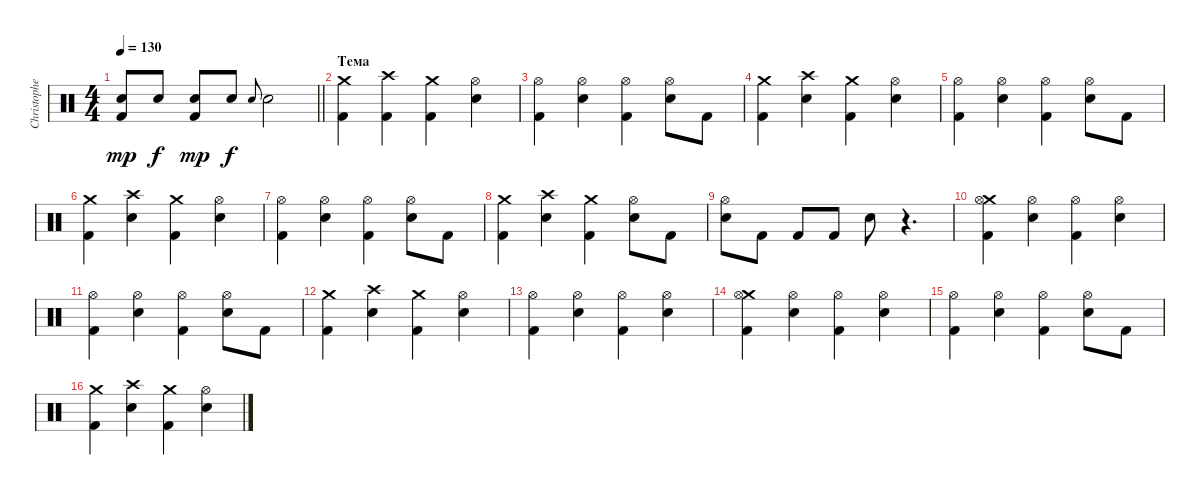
\track ("Christopher Schneider" "Christophe") {instrument percussion}
\staff {score}
\articulation defaults
\ts (4 4)
\tempo 130
\clef neutral
\barLineRight lightlight
\ks c
("Kick (hit) 2" "Electric Snare (hit)").8{dy mp} "Electric Snare (hit)".8{dy f} ("Kick (hit) 2" "Electric Snare (hit)").8{dy mp} "Electric Snare (hit)".8{dy f} "Electric Snare (hit)".8{gr onbeat} "Electric Snare (hit)".2 |
\section ("" "Тема")
("Crash medium (hit)" "Kick (hit) 2").4 ("Crash high (hit)" "Kick (hit) 2").4 ("Crash medium (hit)" "Kick (hit) 2").4 ("Hi-Hat (open)" "Electric Snare (hit)").4 |
("Hi-Hat (open)" "Kick (hit) 2").4 ("Hi-Hat (open)" "Electric Snare (hit)").4 ("Hi-Hat (open)" "Kick (hit) 2").4 ("Hi-Hat (open)" "Electric Snare (hit)").8 "Kick (hit) 2".8 |
("Crash medium (hit)" "Kick (hit) 2").4 ("Crash high (hit)" "Electric Snare (hit)").4 ("Crash medium (hit)" "Kick (hit) 2").4 ("Hi-Hat (open)" "Electric Snare (hit)").4 |
("Hi-Hat (open)" "Kick (hit) 2").4 ("Hi-Hat (open)" "Electric Snare (hit)").4 ("Hi-Hat (open)" "Kick (hit) 2").4 ("Hi-Hat (open)" "Electric Snare (hit)").8 "Kick (hit) 2".8 |
("Crash medium (hit)" "Kick (hit) 2").4 ("Crash high (hit)" "Electric Snare (hit)").4 ("Crash medium (hit)" "Kick (hit) 2").4 ("Hi-Hat (open)" "Electric Snare (hit)").4 |
("Hi-Hat (open)" "Kick (hit) 2").4 ("Hi-Hat (open)" "Electric Snare (hit)").4 ("Hi-Hat (open)" "Kick (hit) 2").4 ("Hi-Hat (open)" "Electric Snare (hit)").8 "Kick (hit) 2".8 |
("Crash medium (hit)" "Kick (hit) 2").4 ("Crash high (hit)" "Electric Snare (hit)").4 ("Crash medium (hit)" "Kick (hit) 2").4 ("Hi-Hat (open)" "Electric Snare (hit)").8 "Kick (hit) 2".8 |
("Hi-Hat (open)" "Electric Snare (hit)").8 "Kick (hit) 2".8 "Kick (hit) 2".8 "Kick (hit) 2".8 "Electric Snare (hit)".8 r.4{d} |
("Crash medium (hit)" "Kick (hit) 2" "Hi-Hat (open)").4 ("Hi-Hat (open)" "Electric Snare (hit)").4 ("Hi-Hat (open)" "Kick (hit) 2").4 ("Hi-Hat (open)" "Electric Snare (hit)").4 |
("Hi-Hat (open)" "Kick (hit) 2").4 ("Hi-Hat (open)" "Electric Snare (hit)").4 ("Hi-Hat (open)" "Kick (hit) 2").4 ("Hi-Hat (open)" "Electric Snare (hit)").8 "Kick (hit) 2".8 |
("Crash medium (hit)" "Kick (hit) 2").4 ("Crash high (hit)" "Electric Snare (hit)").4 ("Crash medium (hit)" "Kick (hit) 2").4 ("Hi-Hat (open)" "Electric Snare (hit)").4 |
("Hi-Hat (open)" "Kick (hit) 2").4 ("Hi-Hat (open)" "Electric Snare (hit)").4 ("Hi-Hat (open)" "Kick (hit) 2").4 ("Hi-Hat (open)" "Electric Snare (hit)").4 |
("Crash medium (hit)" "Kick (hit) 2" "Hi-Hat (open)").4 ("Hi-Hat (open)" "Electric Snare (hit)").4 ("Hi-Hat (open)" "Kick (hit) 2").4 ("Hi-Hat (open)" "Electric Snare (hit)").4 |
("Hi-Hat (open)" "Kick (hit) 2").4 ("Hi-Hat (open)" "Electric Snare (hit)").4 ("Hi-Hat (open)" "Kick (hit) 2").4 ("Hi-Hat (open)" "Electric Snare (hit)").8 "Kick (hit) 2".8 |
("Crash medium (hit)" "Kick (hit) 2").4 ("Crash high (hit)" "Electric Snare (hit)").4 ("Crash medium (hit)" "Kick (hit) 2").4 ("Hi-Hat (open)" "Electric Snare (hit)").4
